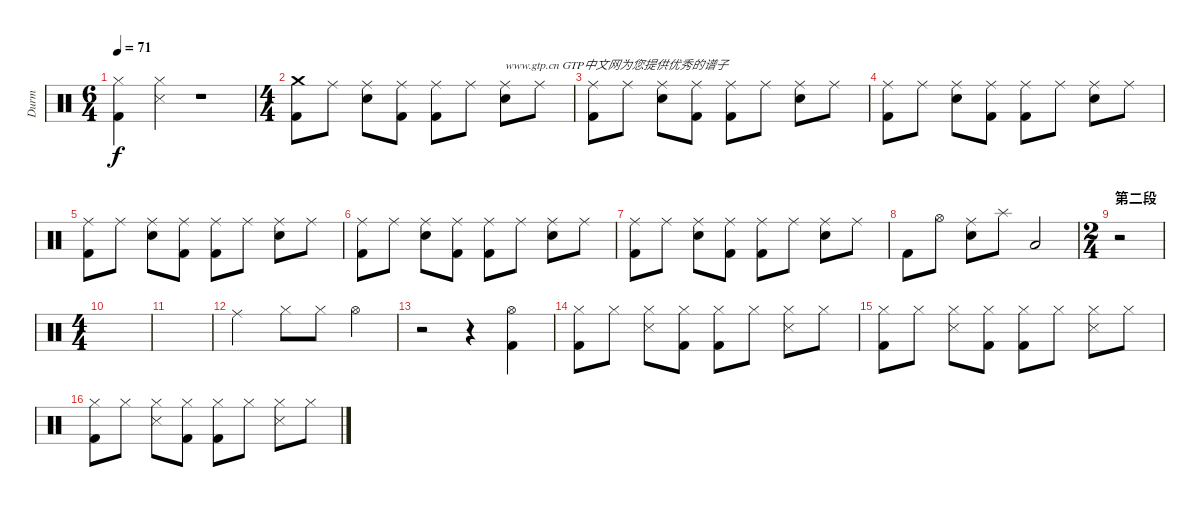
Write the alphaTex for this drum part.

\track ("Durm" "Durm") {instrument percussion}
\staff {score}
\articulation defaults
\ts (6 4)
\tempo 71
\clef neutral
\ks c
("Hi-Hat (closed)" "Kick (hit) 2").4{dy f} ("Hi-Hat (closed)" "Snare (side stick) 3").4 r.1 |
\ts (4 4)
("Kick (hit) 2" "Crash medium (hit)").8 "Ride (middle)".8 ("Electric Snare (hit)" "Ride (middle)").8 ("Kick (hit) 2" "Ride (middle)").8 ("Kick (hit) 2" "Ride (middle)").8 "Ride (middle)".8 ("Electric Snare (hit)" "Ride (middle)").8{txt "www.gtp.cn GTP中文网为您提供优秀的谱子"} "Ride (middle)".8 |
("Kick (hit) 2" "Ride (middle)").8 "Ride (middle)".8 ("Electric Snare (hit)" "Ride (middle)").8 ("Kick (hit) 2" "Ride (middle)").8 ("Kick (hit) 2" "Ride (middle)").8 "Ride (middle)".8 ("Electric Snare (hit)" "Ride (middle)").8 "Ride (middle)".8 |
("Kick (hit) 2" "Ride (middle)").8 "Ride (middle)".8 ("Electric Snare (hit)" "Ride (middle)").8 ("Kick (hit) 2" "Ride (middle)").8 ("Kick (hit) 2" "Ride (middle)").8 "Ride (middle)".8 ("Electric Snare (hit)" "Ride (middle)").8 "Ride (middle)".8 |
("Kick (hit) 2" "Ride (middle)").8 "Ride (middle)".8 ("Electric Snare (hit)" "Ride (middle)").8 ("Kick (hit) 2" "Ride (middle)").8 ("Kick (hit) 2" "Ride (middle)").8 "Ride (middle)".8 ("Electric Snare (hit)" "Ride (middle)").8 "Ride (middle)".8 |
("Kick (hit) 2" "Ride (middle)").8 "Ride (middle)".8 ("Electric Snare (hit)" "Ride (middle)").8 ("Kick (hit) 2" "Ride (middle)").8 ("Kick (hit) 2" "Ride (middle)").8 "Ride (middle)".8 ("Electric Snare (hit)" "Ride (middle)").8 "Ride (middle)".8 |
("Kick (hit) 2" "Ride (middle)").8 "Ride (middle)".8 ("Electric Snare (hit)" "Ride (middle)").8 ("Kick (hit) 2" "Ride (middle)").8 ("Kick (hit) 2" "Ride (middle)").8 "Ride (middle)".8 ("Electric Snare (hit)" "Ride (middle)").8 "Ride (middle)".8 |
"Kick (hit) 2".8 "Hi-Hat (open)".8 ("Electric Snare (hit)" "Ride (middle)").8 "Splash (hit)".8 "Low Tom (hit)".2 |
\ts (2 4)
\section ("" "第二段")
r.2 |
\ts (4 4)
|
|
"Ride (middle)".2 "Hi-Hat (closed)".8 "Hi-Hat (closed)".8 "Hi-Hat (open)".4 |
r.2 r.4 ("Hi-Hat (open)" "Kick (hit) 2").4 |
("Kick (hit) 2" "Hi-Hat (closed)").8 "Hi-Hat (closed)".8 ("Snare (side stick) 3" "Hi-Hat (closed)").8 ("Kick (hit) 2" "Hi-Hat (closed)").8 ("Kick (hit) 2" "Hi-Hat (closed)").8 "Hi-Hat (closed)".8 ("Snare (side stick) 3" "Hi-Hat (closed)").8 "Hi-Hat (closed)".8 |
("Kick (hit) 2" "Hi-Hat (closed)").8 "Hi-Hat (closed)".8 ("Snare (side stick) 3" "Hi-Hat (closed)").8 ("Kick (hit) 2" "Hi-Hat (closed)").8 ("Kick (hit) 2" "Hi-Hat (closed)").8 "Hi-Hat (closed)".8 ("Snare (side stick) 3" "Hi-Hat (closed)").8 "Hi-Hat (closed)".8 |
("Kick (hit) 2" "Hi-Hat (closed)").8 "Hi-Hat (closed)".8 ("Snare (side stick) 3" "Hi-Hat (closed)").8 ("Kick (hit) 2" "Hi-Hat (closed)").8 ("Kick (hit) 2" "Hi-Hat (closed)").8 "Hi-Hat (closed)".8 ("Snare (side stick) 3" "Hi-Hat (closed)").8 "Hi-Hat (closed)".8
